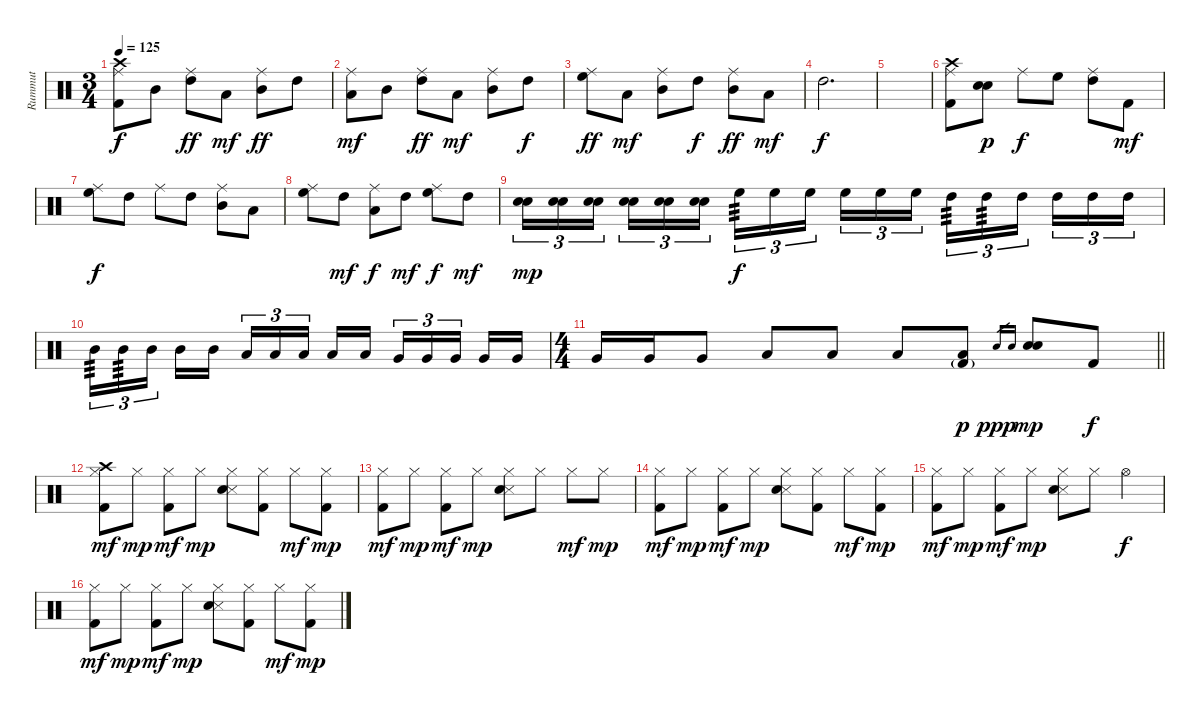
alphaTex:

\track ("Rummut" "Rummut") {instrument percussion}
\staff {score}
\articulation defaults
\ts (3 4)
\tempo 125
\clef neutral
\ks c
("Crash high (hit)" "Ride (middle)" "Kick (hit) 2").8{dy f} "Mid Tom (hit)".8 ("Ride (middle)" "High Tom (hit)").8{dy ff} "Low Floor Tom (hit)".8{dy mf} ("Ride (middle)" "Mid Tom (hit)").8{dy ff} "High Tom (hit)".8 |
("Ride (middle)" "Low Floor Tom (hit)").8{dy mf} "Mid Tom (hit)".8 ("Ride (middle)" "High Tom (hit)").8{dy ff} "Low Tom (hit)".8{dy mf} ("Ride (middle)" "Mid Tom (hit)").8 "High Tom (hit)".8{dy f} |
("Ride (middle)" "High Floor Tom (hit)").8{dy ff} "Low Floor Tom (hit)".8{dy mf} ("Ride (middle)" "Mid Tom (hit)").8 "High Tom (hit)".8{dy f} ("Ride (middle)" "Mid Tom (hit)").8{dy ff} "Low Tom (hit)".8{dy mf} |
"High Tom (hit)".2{d dy f} |
|
("Crash high (hit)" "Ride (middle)" "Kick (hit) 2").8 ("Electric Snare (hit)" "Snare (hit) 2").8{dy p} "Ride (middle)".8{dy f} "High Floor Tom (hit)".8 ("Ride (middle)" "High Tom (hit)").8 "Kick (hit) 2".8{dy mf} |
("Ride (middle)" "High Floor Tom (hit)").8{dy f} "High Tom (hit)".8 "Ride (middle)".8 "High Tom (hit)".8 ("Ride (middle)" "Mid Tom (hit)").8 "Low Tom (hit)".8 |
("Ride (middle)" "High Floor Tom (hit)").8 "High Tom (hit)".8{dy mf} ("Ride (middle)" "Low Tom (hit)").8{dy f} "High Tom (hit)".8{dy mf} ("Ride (middle)" "High Floor Tom (hit)").8{dy f} "High Tom (hit)".8{dy mf balance 4} |
("Electric Snare (hit)" "Snare (hit) 2").16{tu (3 2) dy mp balance 14} ("Electric Snare (hit)" "Snare (hit) 2").16{tu (3 2)} ("Electric Snare (hit)" "Snare (hit) 2").16{tu (3 2) beam splitsecondary} ("Electric Snare (hit)" "Snare (hit) 2").16{tu (3 2)} ("Electric Snare (hit)" "Snare (hit) 2").16{tu (3 2)} ("Electric Snare (hit)" "Snare (hit) 2").16{tu (3 2)} "High Floor Tom (hit)".16{tu (3 2) tp 3 dy f} "High Floor Tom (hit)".16{tu (3 2)} "High Floor Tom (hit)".16{tu (3 2) beam splitsecondary} "High Floor Tom (hit)".16{tu (3 2)} "High Floor Tom (hit)".16{tu (3 2)} "High Floor Tom (hit)".16{tu (3 2)} "High Tom (hit)".16{tu (3 2) tp 3} "High Tom (hit)".16{tu (3 2) tp 3} "High Tom (hit)".16{tu (3 2) beam splitsecondary} "High Tom (hit)".16{tu (3 2)} "High Tom (hit)".16{tu (3 2)} "High Tom (hit)".16{tu (3 2)} |
"Mid Tom (hit)".16{tu (3 2) tp 3 volume 8} "Mid Tom (hit)".16{tu (3 2) tp 3} "Mid Tom (hit)".16{tu (3 2) beam splitsecondary} "Mid Tom (hit)".16 "Mid Tom (hit)".16 "Low Tom (hit)".16{tu (3 2) balance 1} "Low Tom (hit)".16{tu (3 2)} "Low Tom (hit)".16{tu (3 2) beam splitsecondary} "Low Tom (hit)".16 "Low Tom (hit)".16 "Very Low Tom (hit)".16{tu (3 2)} "Very Low Tom (hit)".16{tu (3 2)} "Very Low Tom (hit)".16{tu (3 2) beam splitsecondary} "Very Low Tom (hit)".16 "Very Low Tom (hit)".16 |
\ts (4 4)
\barLineRight lightlight "Very Low Tom (hit)".16 "Very Low Tom (hit)".16 "Very Low Tom (hit)".8 "Low Floor Tom (hit)".8 "Low Floor Tom (hit)".8 "Low Floor Tom (hit)".8
("Low Floor Tom (hit)" "Kick (hit) 2"{g}).8{dy p balance 8} "Electric Snare (hit)".16{gr dy ppp} "Snare (hit) 2".16{gr} ("Electric Snare (hit)" "Snare (hit) 2").8{dy mp} "Kick (hit) 2".8{dy f} |
\section ("" "")
("Crash high (hit)" "Hi-Hat (closed)" "Kick (hit) 2").8{dy mf volume 12 balance 8} "Hi-Hat (closed)".8{dy mp} ("Hi-Hat (closed)" "Kick (hit) 2").8{dy mf} "Hi-Hat (closed)".8{dy mp} ("Hi-Hat (closed)" "Snare (side stick) 3" "Electric Snare (hit)").8 ("Hi-Hat (closed)" "Kick (hit) 2").8 "Hi-Hat (closed)".8{dy mf} ("Hi-Hat (closed)" "Kick (hit) 2").8{dy mp} |
("Hi-Hat (closed)" "Kick (hit) 2").8{dy mf} "Hi-Hat (closed)".8{dy mp} ("Hi-Hat (closed)" "Kick (hit) 2").8{dy mf} "Hi-Hat (closed)".8{dy mp} ("Hi-Hat (closed)" "Snare (side stick) 3" "Electric Snare (hit)").8 "Hi-Hat (closed)".8 "Hi-Hat (closed)".8{dy mf} "Hi-Hat (closed)".8{dy mp} |
("Hi-Hat (closed)" "Kick (hit) 2").8{dy mf} "Hi-Hat (closed)".8{dy mp} ("Hi-Hat (closed)" "Kick (hit) 2").8{dy mf} "Hi-Hat (closed)".8{dy mp} ("Hi-Hat (closed)" "Snare (side stick) 3" "Electric Snare (hit)").8 ("Hi-Hat (closed)" "Kick (hit) 2").8 "Hi-Hat (closed)".8{dy mf} ("Hi-Hat (closed)" "Kick (hit) 2").8{dy mp} |
("Hi-Hat (closed)" "Kick (hit) 2").8{dy mf} "Hi-Hat (closed)".8{dy mp} ("Hi-Hat (closed)" "Kick (hit) 2").8{dy mf} "Hi-Hat (closed)".8{dy mp} ("Hi-Hat (closed)" "Snare (side stick) 3" "Electric Snare (hit)").8 "Hi-Hat (closed)".8 "Hi-Hat (open)".4{dy f} |
("Hi-Hat (closed)" "Kick (hit) 2").8{dy mf} "Hi-Hat (closed)".8{dy mp} ("Hi-Hat (closed)" "Kick (hit) 2").8{dy mf} "Hi-Hat (closed)".8{dy mp} ("Hi-Hat (closed)" "Snare (side stick) 3" "Electric Snare (hit)").8 ("Hi-Hat (closed)" "Kick (hit) 2").8 "Hi-Hat (closed)".8{dy mf} ("Hi-Hat (closed)" "Kick (hit) 2").8{dy mp}
